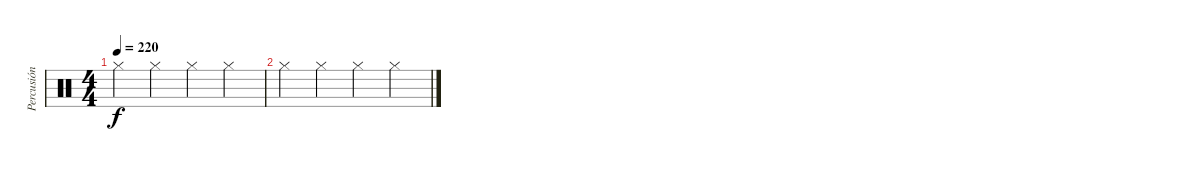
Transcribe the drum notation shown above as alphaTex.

\track ("Percusión" "Percusión") {instrument percussion}
\staff {score}
\articulation defaults
\ts (4 4)
\tempo 220
\clef neutral
\ks c "Hi-Hat (closed)".4{dy f} "Hi-Hat (closed)".4 "Hi-Hat (closed)".4 "Hi-Hat (closed)".4
|
"Hi-Hat (closed)".4 "Hi-Hat (closed)".4 "Hi-Hat (closed)".4 "Hi-Hat (closed)".4
